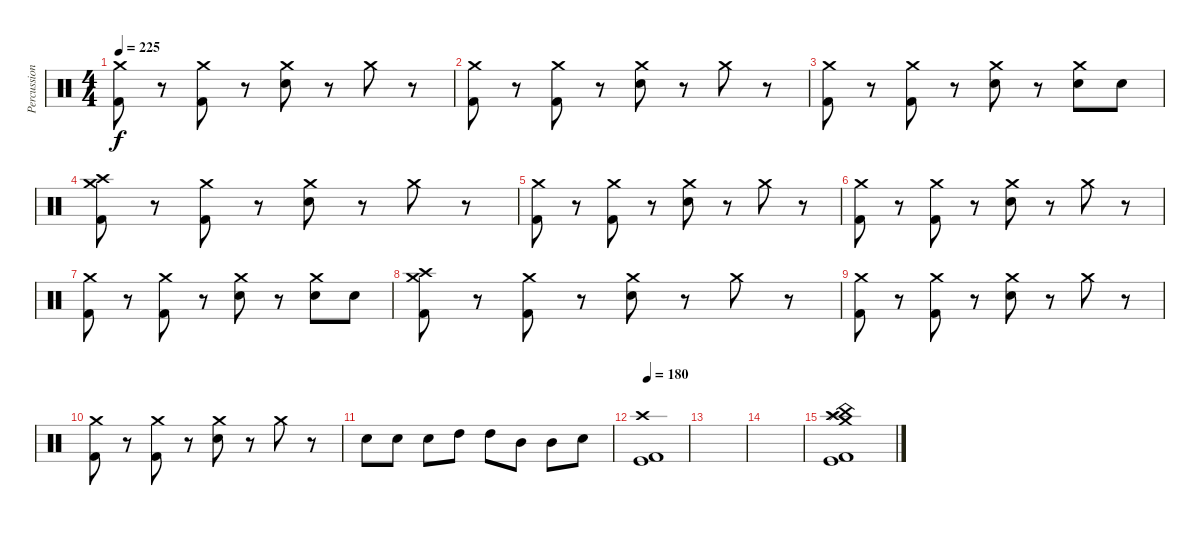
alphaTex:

\track ("Percussions" "Percussion") {instrument percussion}
\staff {score}
\articulation defaults
\ts (4 4)
\tempo 225
\clef neutral
\ks c
("Crash medium (hit)" "Kick (hit) 2").8{dy f} r.8 ("Crash medium (hit)" "Kick (hit) 2").8 r.8 ("Crash medium (hit)" "Electric Snare (hit)").8 r.8 "Crash medium (hit)".8 r.8 |
("Crash medium (hit)" "Kick (hit) 2").8 r.8 ("Crash medium (hit)" "Kick (hit) 2").8 r.8 ("Crash medium (hit)" "Electric Snare (hit)").8 r.8 "Crash medium (hit)".8 r.8 |
("Crash medium (hit)" "Kick (hit) 2").8 r.8 ("Crash medium (hit)" "Kick (hit) 2").8 r.8 ("Crash medium (hit)" "Electric Snare (hit)").8 r.8 ("Crash medium (hit)" "Electric Snare (hit)").8 "Electric Snare (hit)".8 |
("Crash medium (hit)" "Crash high (hit)" "Kick (hit) 2").8 r.8 ("Crash medium (hit)" "Kick (hit) 2").8 r.8 ("Crash medium (hit)" "Electric Snare (hit)").8 r.8 "Crash medium (hit)".8 r.8 |
("Crash medium (hit)" "Kick (hit) 2").8 r.8 ("Crash medium (hit)" "Kick (hit) 2").8 r.8 ("Crash medium (hit)" "Electric Snare (hit)").8 r.8 "Crash medium (hit)".8 r.8 |
("Crash medium (hit)" "Kick (hit) 2").8 r.8 ("Crash medium (hit)" "Kick (hit) 2").8 r.8 ("Crash medium (hit)" "Electric Snare (hit)").8 r.8 "Crash medium (hit)".8 r.8 |
("Crash medium (hit)" "Kick (hit) 2").8 r.8 ("Crash medium (hit)" "Kick (hit) 2").8 r.8 ("Crash medium (hit)" "Electric Snare (hit)").8 r.8 ("Crash medium (hit)" "Electric Snare (hit)").8 "Electric Snare (hit)".8 |
("Crash medium (hit)" "Crash high (hit)" "Kick (hit) 2").8 r.8 ("Crash medium (hit)" "Kick (hit) 2").8 r.8 ("Crash medium (hit)" "Electric Snare (hit)").8 r.8 "Crash medium (hit)".8 r.8 |
("Crash medium (hit)" "Kick (hit) 2").8 r.8 ("Crash medium (hit)" "Kick (hit) 2").8 r.8 ("Crash medium (hit)" "Electric Snare (hit)").8 r.8 "Crash medium (hit)".8 r.8 |
("Crash medium (hit)" "Kick (hit) 2").8 r.8 ("Crash medium (hit)" "Kick (hit) 2").8 r.8 ("Crash medium (hit)" "Electric Snare (hit)").8 r.8 "Crash medium (hit)".8 r.8 |
"Electric Snare (hit)".8 "Electric Snare (hit)".8 "Electric Snare (hit)".8 "High Tom (hit)".8 "High Tom (hit)".8 "Mid Tom (hit)".8 "Mid Tom (hit)".8 "Electric Snare (hit)".8 |
\tempo 180
("Crash high (hit)" "Kick (hit)" "Kick (hit) 2").1 |
|
|
("China (hit)" "Kick (hit)" "Crash medium (hit)" "Crash high (hit)" "Splash (hit)" "Kick (hit) 2").1
